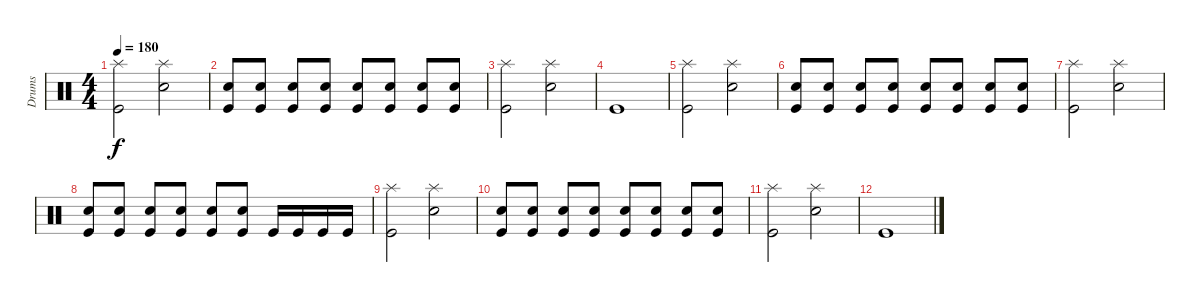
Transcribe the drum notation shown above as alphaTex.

\track ("Drums" "Drums") {instrument percussion}
\staff {score}
\articulation defaults
\ts (4 4)
\tempo 180
\clef neutral
\ks c
("Splash (hit)" "Kick (hit)").2{dy f} ("Splash (hit)" "Electric Snare (hit)").2 |
("Electric Snare (hit)" "Kick (hit)").8 ("Electric Snare (hit)" "Kick (hit)").8 ("Electric Snare (hit)" "Kick (hit)").8 ("Electric Snare (hit)" "Kick (hit)").8 ("Electric Snare (hit)" "Kick (hit)").8 ("Electric Snare (hit)" "Kick (hit)").8 ("Electric Snare (hit)" "Kick (hit)").8 ("Electric Snare (hit)" "Kick (hit)").8 |
("Splash (hit)" "Kick (hit)").2 ("Splash (hit)" "Electric Snare (hit)").2 |
"Kick (hit)".1 |
("Splash (hit)" "Kick (hit)").2 ("Splash (hit)" "Electric Snare (hit)").2 |
("Electric Snare (hit)" "Kick (hit)").8 ("Electric Snare (hit)" "Kick (hit)").8 ("Electric Snare (hit)" "Kick (hit)").8 ("Electric Snare (hit)" "Kick (hit)").8 ("Electric Snare (hit)" "Kick (hit)").8 ("Electric Snare (hit)" "Kick (hit)").8 ("Electric Snare (hit)" "Kick (hit)").8 ("Electric Snare (hit)" "Kick (hit)").8 |
("Splash (hit)" "Kick (hit)").2 ("Splash (hit)" "Electric Snare (hit)").2 |
("Electric Snare (hit)" "Kick (hit)").8 ("Electric Snare (hit)" "Kick (hit)").8 ("Electric Snare (hit)" "Kick (hit)").8 ("Electric Snare (hit)" "Kick (hit)").8 ("Electric Snare (hit)" "Kick (hit)").8 ("Electric Snare (hit)" "Kick (hit)").8 "Kick (hit)".16 "Kick (hit)".16 "Kick (hit)".16 "Kick (hit)".16 |
("Splash (hit)" "Kick (hit)").2 ("Splash (hit)" "Electric Snare (hit)").2 |
("Electric Snare (hit)" "Kick (hit)").8 ("Electric Snare (hit)" "Kick (hit)").8 ("Electric Snare (hit)" "Kick (hit)").8 ("Electric Snare (hit)" "Kick (hit)").8 ("Electric Snare (hit)" "Kick (hit)").8 ("Electric Snare (hit)" "Kick (hit)").8 ("Electric Snare (hit)" "Kick (hit)").8 ("Electric Snare (hit)" "Kick (hit)").8 |
("Splash (hit)" "Kick (hit)").2 ("Splash (hit)" "Electric Snare (hit)").2 |
"Kick (hit)".1
